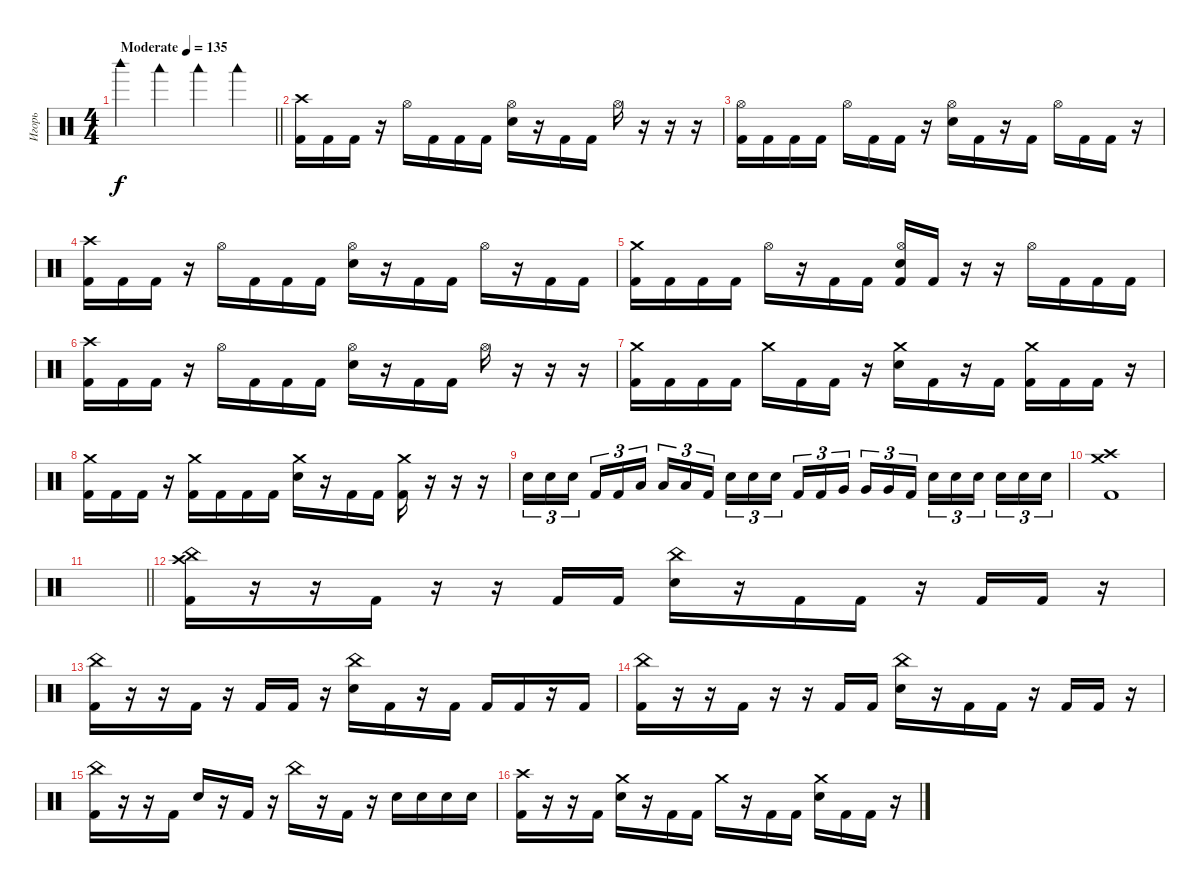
\track ("Игорь" "Игорь") {instrument percussion}
\staff {score}
\articulation defaults
\ts (4 4)
\tempo (135 "Moderate")
\clef neutral
\barLineRight lightlight
\ks c "Woodblock high (hit)".4{dy f} "Woodblock low (hit)".4 "Woodblock low (hit)".4 "Woodblock low (hit)".4
|
("Crash high (hit)" "Kick (hit) 2").16 "Kick (hit) 2".16 "Kick (hit) 2".16 r.16 "Hi-Hat (open)".16 "Kick (hit) 2".16 "Kick (hit) 2".16 "Kick (hit) 2".16 ("Hi-Hat (open)" "Electric Snare (hit)").16 r.16 "Kick (hit) 2".16 "Kick (hit) 2".16 "Hi-Hat (open)".16 r.16 r.16 r.16 |
("Hi-Hat (open)" "Kick (hit) 2").16 "Kick (hit) 2".16 "Kick (hit) 2".16 "Kick (hit) 2".16 "Hi-Hat (open)".16 "Kick (hit) 2".16 "Kick (hit) 2".16 r.16 ("Hi-Hat (open)" "Electric Snare (hit)").16 "Kick (hit) 2".16 r.16 "Kick (hit) 2".16 "Hi-Hat (open)".16 "Kick (hit) 2".16 "Kick (hit) 2".16 r.16 |
("Crash high (hit)" "Kick (hit) 2").16 "Kick (hit) 2".16 "Kick (hit) 2".16 r.16 "Hi-Hat (open)".16 "Kick (hit) 2".16 "Kick (hit) 2".16 "Kick (hit) 2".16 ("Hi-Hat (open)" "Electric Snare (hit)").16 r.16 "Kick (hit) 2".16 "Kick (hit) 2".16 "Hi-Hat (open)".16 r.16 "Kick (hit) 2".16 "Kick (hit) 2".16 |
("Crash medium (hit)" "Kick (hit) 2").16 "Kick (hit) 2".16 "Kick (hit) 2".16 "Kick (hit) 2".16 "Hi-Hat (open)".16 r.16 "Kick (hit) 2".16 "Kick (hit) 2".16 ("Hi-Hat (open)" "Electric Snare (hit)" "Kick (hit) 2").16 "Kick (hit) 2".16 r.16 r.16 "Hi-Hat (open)".16 "Kick (hit) 2".16 "Kick (hit) 2".16 "Kick (hit) 2".16 |
("Crash high (hit)" "Kick (hit) 2").16 "Kick (hit) 2".16 "Kick (hit) 2".16 r.16 "Hi-Hat (open)".16 "Kick (hit) 2".16 "Kick (hit) 2".16 "Kick (hit) 2".16 ("Hi-Hat (open)" "Electric Snare (hit)").16 r.16 "Kick (hit) 2".16 "Kick (hit) 2".16 "Hi-Hat (open)".16 r.16 r.16 r.16 |
("Crash medium (hit)" "Kick (hit) 2").16 "Kick (hit) 2".16 "Kick (hit) 2".16 "Kick (hit) 2".16 "Crash medium (hit)".16 "Kick (hit) 2".16 "Kick (hit) 2".16 r.16 ("Crash medium (hit)" "Electric Snare (hit)").16 "Kick (hit) 2".16 r.16 "Kick (hit) 2".16 ("Crash medium (hit)" "Kick (hit) 2").16 "Kick (hit) 2".16 "Kick (hit) 2".16 r.16 |
("Crash medium (hit)" "Kick (hit) 2").16 "Kick (hit) 2".16 "Kick (hit) 2".16 r.16 ("Crash medium (hit)" "Kick (hit) 2").16 "Kick (hit) 2".16 "Kick (hit) 2".16 "Kick (hit) 2".16 ("Crash medium (hit)" "Electric Snare (hit)").16 r.16 "Kick (hit) 2".16 "Kick (hit) 2".16 ("Crash medium (hit)" "Kick (hit) 2").16 r.16 r.16 r.16 |
"Electric Snare (hit)".16{tu (3 2)} "Electric Snare (hit)".16{tu (3 2)} "Electric Snare (hit)".16{tu (3 2) beam splitsecondary} "Kick (hit) 2".16{tu (3 2)} "Kick (hit) 2".16{tu (3 2)} "Low Tom (hit)".16{tu (3 2)} "Low Tom (hit)".16{tu (3 2)} "Low Tom (hit)".16{tu (3 2)} "Kick (hit) 2".16{tu (3 2) beam splitsecondary} "Electric Snare (hit)".16{tu (3 2)} "Electric Snare (hit)".16{tu (3 2)} "Electric Snare (hit)".16{tu (3 2)} "Kick (hit) 2".16{tu (3 2)} "Kick (hit) 2".16{tu (3 2)} "Very Low Tom (hit)".16{tu (3 2) beam splitsecondary} "Very Low Tom (hit)".16{tu (3 2)} "Very Low Tom (hit)".16{tu (3 2)} "Kick (hit) 2".16{tu (3 2)} "Electric Snare (hit)".16{tu (3 2)} "Electric Snare (hit)".16{tu (3 2)} "Electric Snare (hit)".16{tu (3 2) beam splitsecondary} "Electric Snare (hit)".16{tu (3 2)} "Electric Snare (hit)".16{tu (3 2)} "Electric Snare (hit)".16{tu (3 2)} |
("Crash medium (hit)" "Crash high (hit)" "Kick (hit) 2").1 |
\barLineRight lightlight
|
("China (hit)" "Crash high (hit)" "Kick (hit) 2").16 r.16 r.16 "Kick (hit) 2".16 r.16 r.16 "Kick (hit) 2".16 "Kick (hit) 2".16 ("China (hit)" "Electric Snare (hit)").16 r.16 "Kick (hit) 2".16 "Kick (hit) 2".16 r.16 "Kick (hit) 2".16 "Kick (hit) 2".16 r.16 |
("China (hit)" "Kick (hit) 2").16 r.16 r.16 "Kick (hit) 2".16 r.16 "Kick (hit) 2".16 "Kick (hit) 2".16 r.16 ("China (hit)" "Electric Snare (hit)").16 "Kick (hit) 2".16 r.16 "Kick (hit) 2".16 "Kick (hit) 2".16 "Kick (hit) 2".16 r.16 "Kick (hit) 2".16 |
("China (hit)" "Kick (hit) 2").16 r.16 r.16 "Kick (hit) 2".16 r.16 r.16 "Kick (hit) 2".16 "Kick (hit) 2".16 ("China (hit)" "Electric Snare (hit)").16 r.16 "Kick (hit) 2".16 "Kick (hit) 2".16 r.16 "Kick (hit) 2".16 "Kick (hit) 2".16 r.16 |
("China (hit)" "Kick (hit) 2").16 r.16 r.16 "Kick (hit) 2".16 "Electric Snare (hit)".16 r.16 "Kick (hit) 2".16 r.16 "China (hit)".16 r.16 "Kick (hit) 2".16 r.16 "Electric Snare (hit)".16 "Electric Snare (hit)".16 "Electric Snare (hit)".16 "Electric Snare (hit)".16 |
("Crash high (hit)" "Kick (hit) 2").16 r.16 r.16 "Kick (hit) 2".16 ("Crash medium (hit)" "Electric Snare (hit)").16 r.16 "Kick (hit) 2".16 "Kick (hit) 2".16 "Crash medium (hit)".16 r.16 "Kick (hit) 2".16 "Kick (hit) 2".16 ("Crash medium (hit)" "Electric Snare (hit)").16 "Kick (hit) 2".16 "Kick (hit) 2".16 r.16
